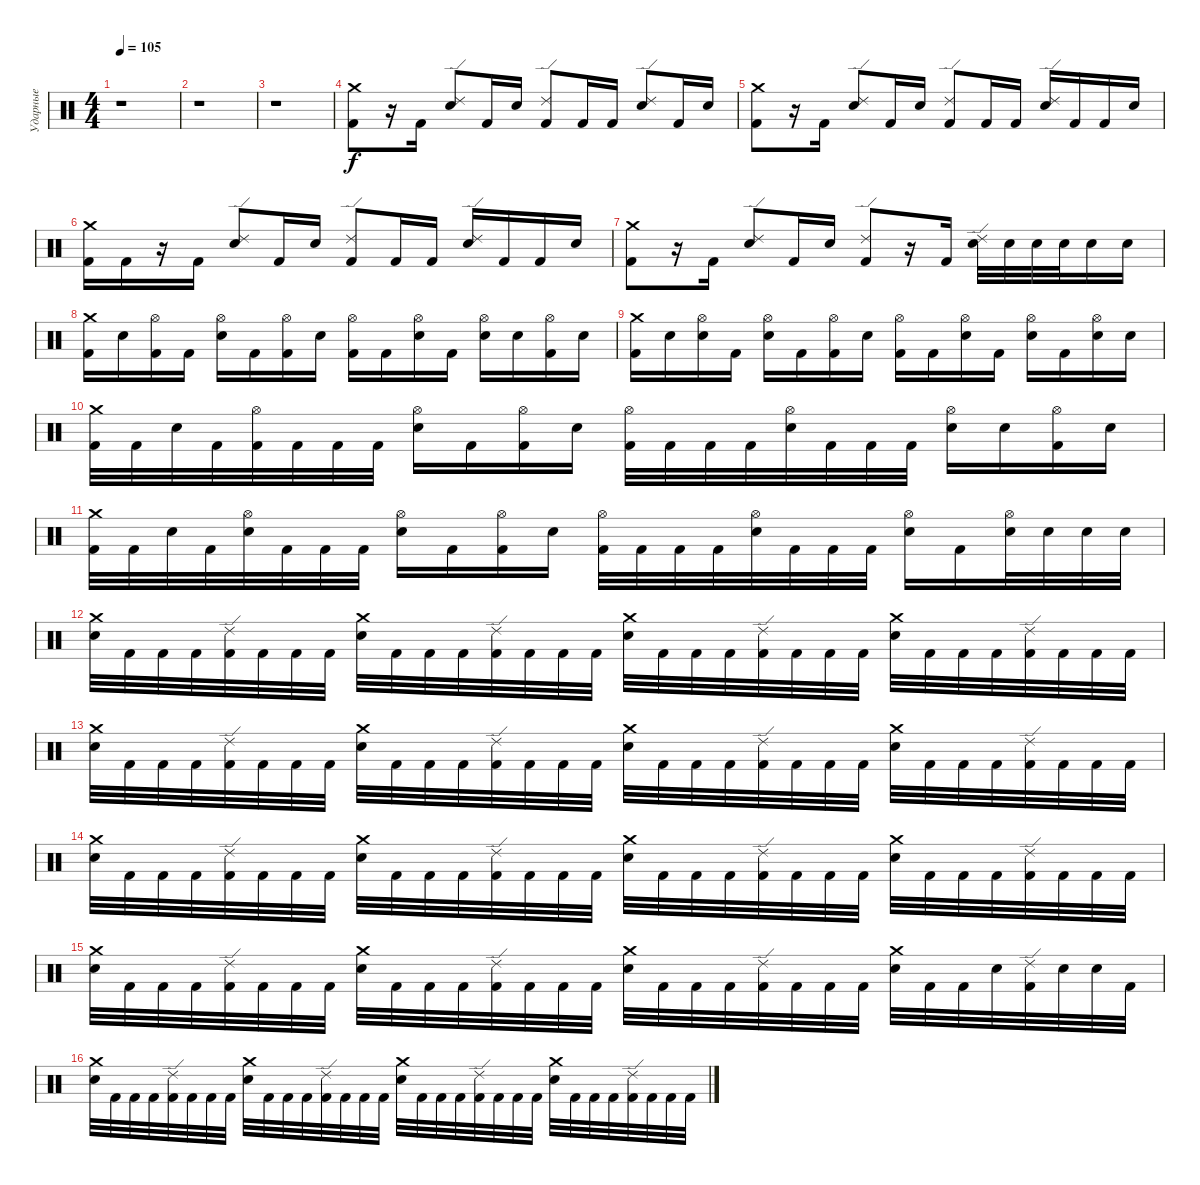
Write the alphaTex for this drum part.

\track ("Ударные" "Ударные") {instrument percussion}
\staff {score}
\articulation defaults
\ts (4 4)
\tempo 105
\clef neutral
\ks c
r.1{dy f} |
r.1 |
r.1 |
("Crash medium (hit)" "Kick (hit) 2").8 r.16 "Kick (hit) 2".16 ("Ride (edge) 2" "Electric Snare (hit)").8 "Kick (hit) 2".16 "Electric Snare (hit)".16 ("Ride (edge) 2" "Kick (hit) 2").8 "Kick (hit) 2".16 "Kick (hit) 2".16 ("Ride (edge) 2" "Electric Snare (hit)").8 "Kick (hit) 2".16 "Electric Snare (hit)".16 |
("Crash medium (hit)" "Kick (hit) 2").8 r.16 "Kick (hit) 2".16 ("Ride (edge) 2" "Electric Snare (hit)").8 "Kick (hit) 2".16 "Electric Snare (hit)".16 ("Ride (edge) 2" "Kick (hit) 2").8 "Kick (hit) 2".16 "Kick (hit) 2".16 ("Ride (edge) 2" "Electric Snare (hit)").16 "Kick (hit) 2".16 "Kick (hit) 2".16 "Electric Snare (hit)".16 |
("Crash medium (hit)" "Kick (hit) 2").16 "Kick (hit) 2".16 r.16 "Kick (hit) 2".16 ("Ride (edge) 2" "Electric Snare (hit)").8 "Kick (hit) 2".16 "Electric Snare (hit)".16 ("Ride (edge) 2" "Kick (hit) 2").8 "Kick (hit) 2".16 "Kick (hit) 2".16 ("Ride (edge) 2" "Electric Snare (hit)").16 "Kick (hit) 2".16 "Kick (hit) 2".16 "Electric Snare (hit)".16 |
("Crash medium (hit)" "Kick (hit) 2").8 r.16 "Kick (hit) 2".16 ("Ride (edge) 2" "Electric Snare (hit)").8 "Kick (hit) 2".16 "Electric Snare (hit)".16 ("Ride (edge) 2" "Kick (hit) 2").8 r.16 "Kick (hit) 2".16 ("Electric Snare (hit)" "Ride (edge) 2").32 "Electric Snare (hit)".32 "Electric Snare (hit)".32 "Electric Snare (hit)".32 "Electric Snare (hit)".16 "Electric Snare (hit)".16 |
("Crash medium (hit)" "Kick (hit) 2").16 "Electric Snare (hit)".16 ("Hi-Hat (open)" "Kick (hit) 2").16 "Kick (hit) 2".16 ("Hi-Hat (open)" "Electric Snare (hit)").16 "Kick (hit) 2".16 ("Hi-Hat (open)" "Kick (hit) 2").16 "Electric Snare (hit)".16 ("Hi-Hat (open)" "Kick (hit) 2").16 "Kick (hit) 2".16 ("Hi-Hat (open)" "Electric Snare (hit)").16 "Kick (hit) 2".16 ("Hi-Hat (open)" "Electric Snare (hit)").16 "Electric Snare (hit)".16 ("Hi-Hat (open)" "Kick (hit) 2").16 "Electric Snare (hit)".16 |
("Crash medium (hit)" "Kick (hit) 2").16 "Electric Snare (hit)".16 ("Hi-Hat (open)" "Electric Snare (hit)").16 "Kick (hit) 2".16 ("Hi-Hat (open)" "Electric Snare (hit)").16 "Kick (hit) 2".16 ("Hi-Hat (open)" "Kick (hit) 2").16 "Electric Snare (hit)".16 ("Hi-Hat (open)" "Kick (hit) 2").16 "Kick (hit) 2".16 ("Hi-Hat (open)" "Electric Snare (hit)").16 "Kick (hit) 2".16 ("Hi-Hat (open)" "Electric Snare (hit)").16 "Kick (hit) 2".16 ("Hi-Hat (open)" "Electric Snare (hit)").16 "Electric Snare (hit)".16 |
("Crash medium (hit)" "Kick (hit) 2").32 "Kick (hit) 2".32 "Electric Snare (hit)".32 "Kick (hit) 2".32 ("Hi-Hat (open)" "Kick (hit) 2").32 "Kick (hit) 2".32 "Kick (hit) 2".32 "Kick (hit) 2".32 ("Hi-Hat (open)" "Electric Snare (hit)").16 "Kick (hit) 2".16 ("Hi-Hat (open)" "Kick (hit) 2").16 "Electric Snare (hit)".16 ("Hi-Hat (open)" "Kick (hit) 2").32 "Kick (hit) 2".32 "Kick (hit) 2".32 "Kick (hit) 2".32 ("Hi-Hat (open)" "Electric Snare (hit)").32 "Kick (hit) 2".32 "Kick (hit) 2".32 "Kick (hit) 2".32 ("Hi-Hat (open)" "Electric Snare (hit)").16 "Electric Snare (hit)".16 ("Hi-Hat (open)" "Kick (hit) 2").16 "Electric Snare (hit)".16 |
("Crash medium (hit)" "Kick (hit) 2").32 "Kick (hit) 2".32 "Electric Snare (hit)".32 "Kick (hit) 2".32 ("Hi-Hat (open)" "Electric Snare (hit)").32 "Kick (hit) 2".32 "Kick (hit) 2".32 "Kick (hit) 2".32 ("Hi-Hat (open)" "Electric Snare (hit)").16 "Kick (hit) 2".16 ("Hi-Hat (open)" "Kick (hit) 2").16 "Electric Snare (hit)".16 ("Hi-Hat (open)" "Kick (hit) 2").32 "Kick (hit) 2".32 "Kick (hit) 2".32 "Kick (hit) 2".32 ("Hi-Hat (open)" "Electric Snare (hit)").32 "Kick (hit) 2".32 "Kick (hit) 2".32 "Kick (hit) 2".32 ("Hi-Hat (open)" "Electric Snare (hit)").16 "Kick (hit) 2".16 ("Hi-Hat (open)" "Electric Snare (hit)").32 "Electric Snare (hit)".32 "Electric Snare (hit)".32 "Electric Snare (hit)".32 |
("Crash medium (hit)" "Electric Snare (hit)").32 "Kick (hit) 2".32 "Kick (hit) 2".32 "Kick (hit) 2".32 ("Ride (edge) 2" "Kick (hit) 2").32 "Kick (hit) 2".32 "Kick (hit) 2".32 "Kick (hit) 2".32 ("Crash medium (hit)" "Electric Snare (hit)").32 "Kick (hit) 2".32 "Kick (hit) 2".32 "Kick (hit) 2".32 ("Ride (edge) 2" "Kick (hit) 2").32 "Kick (hit) 2".32 "Kick (hit) 2".32 "Kick (hit) 2".32 ("Crash medium (hit)" "Electric Snare (hit)").32 "Kick (hit) 2".32 "Kick (hit) 2".32 "Kick (hit) 2".32 ("Ride (edge) 2" "Kick (hit) 2").32 "Kick (hit) 2".32 "Kick (hit) 2".32 "Kick (hit) 2".32 ("Crash medium (hit)" "Electric Snare (hit)").32 "Kick (hit) 2".32 "Kick (hit) 2".32 "Kick (hit) 2".32 ("Ride (edge) 2" "Kick (hit) 2").32 "Kick (hit) 2".32 "Kick (hit) 2".32 "Kick (hit) 2".32 |
("Crash medium (hit)" "Electric Snare (hit)").32 "Kick (hit) 2".32 "Kick (hit) 2".32 "Kick (hit) 2".32 ("Ride (edge) 2" "Kick (hit) 2").32 "Kick (hit) 2".32 "Kick (hit) 2".32 "Kick (hit) 2".32 ("Crash medium (hit)" "Electric Snare (hit)").32 "Kick (hit) 2".32 "Kick (hit) 2".32 "Kick (hit) 2".32 ("Ride (edge) 2" "Kick (hit) 2").32 "Kick (hit) 2".32 "Kick (hit) 2".32 "Kick (hit) 2".32 ("Crash medium (hit)" "Electric Snare (hit)").32 "Kick (hit) 2".32 "Kick (hit) 2".32 "Kick (hit) 2".32 ("Ride (edge) 2" "Kick (hit) 2").32 "Kick (hit) 2".32 "Kick (hit) 2".32 "Kick (hit) 2".32 ("Crash medium (hit)" "Electric Snare (hit)").32 "Kick (hit) 2".32 "Kick (hit) 2".32 "Kick (hit) 2".32 ("Ride (edge) 2" "Kick (hit) 2").32 "Kick (hit) 2".32 "Kick (hit) 2".32 "Kick (hit) 2".32 |
("Crash medium (hit)" "Electric Snare (hit)").32 "Kick (hit) 2".32 "Kick (hit) 2".32 "Kick (hit) 2".32 ("Ride (edge) 2" "Kick (hit) 2").32 "Kick (hit) 2".32 "Kick (hit) 2".32 "Kick (hit) 2".32 ("Crash medium (hit)" "Electric Snare (hit)").32 "Kick (hit) 2".32 "Kick (hit) 2".32 "Kick (hit) 2".32 ("Ride (edge) 2" "Kick (hit) 2").32 "Kick (hit) 2".32 "Kick (hit) 2".32 "Kick (hit) 2".32 ("Crash medium (hit)" "Electric Snare (hit)").32 "Kick (hit) 2".32 "Kick (hit) 2".32 "Kick (hit) 2".32 ("Ride (edge) 2" "Kick (hit) 2").32 "Kick (hit) 2".32 "Kick (hit) 2".32 "Kick (hit) 2".32 ("Crash medium (hit)" "Electric Snare (hit)").32 "Kick (hit) 2".32 "Kick (hit) 2".32 "Kick (hit) 2".32 ("Ride (edge) 2" "Kick (hit) 2").32 "Kick (hit) 2".32 "Kick (hit) 2".32 "Kick (hit) 2".32 |
("Crash medium (hit)" "Electric Snare (hit)").32 "Kick (hit) 2".32 "Kick (hit) 2".32 "Kick (hit) 2".32 ("Ride (edge) 2" "Kick (hit) 2").32 "Kick (hit) 2".32 "Kick (hit) 2".32 "Kick (hit) 2".32 ("Crash medium (hit)" "Electric Snare (hit)").32 "Kick (hit) 2".32 "Kick (hit) 2".32 "Kick (hit) 2".32 ("Ride (edge) 2" "Kick (hit) 2").32 "Kick (hit) 2".32 "Kick (hit) 2".32 "Kick (hit) 2".32 ("Crash medium (hit)" "Electric Snare (hit)").32 "Kick (hit) 2".32 "Kick (hit) 2".32 "Kick (hit) 2".32 ("Ride (edge) 2" "Kick (hit) 2").32 "Kick (hit) 2".32 "Kick (hit) 2".32 "Kick (hit) 2".32 ("Crash medium (hit)" "Electric Snare (hit)").32 "Kick (hit) 2".32 "Kick (hit) 2".32 "Electric Snare (hit)".32 ("Ride (edge) 2" "Kick (hit) 2").32 "Electric Snare (hit)".32 "Electric Snare (hit)".32 "Kick (hit) 2".32 |
("Crash medium (hit)" "Electric Snare (hit)").32 "Kick (hit) 2".32 "Kick (hit) 2".32 "Kick (hit) 2".32 ("Ride (edge) 2" "Kick (hit) 2").32 "Kick (hit) 2".32 "Kick (hit) 2".32 "Kick (hit) 2".32 ("Crash medium (hit)" "Electric Snare (hit)").32 "Kick (hit) 2".32 "Kick (hit) 2".32 "Kick (hit) 2".32 ("Ride (edge) 2" "Kick (hit) 2").32 "Kick (hit) 2".32 "Kick (hit) 2".32 "Kick (hit) 2".32 ("Crash medium (hit)" "Electric Snare (hit)").32 "Kick (hit) 2".32 "Kick (hit) 2".32 "Kick (hit) 2".32 ("Ride (edge) 2" "Kick (hit) 2").32 "Kick (hit) 2".32 "Kick (hit) 2".32 "Kick (hit) 2".32 ("Crash medium (hit)" "Electric Snare (hit)").32 "Kick (hit) 2".32 "Kick (hit) 2".32 "Kick (hit) 2".32 ("Ride (edge) 2" "Kick (hit) 2").32 "Kick (hit) 2".32 "Kick (hit) 2".32 "Kick (hit) 2".32
